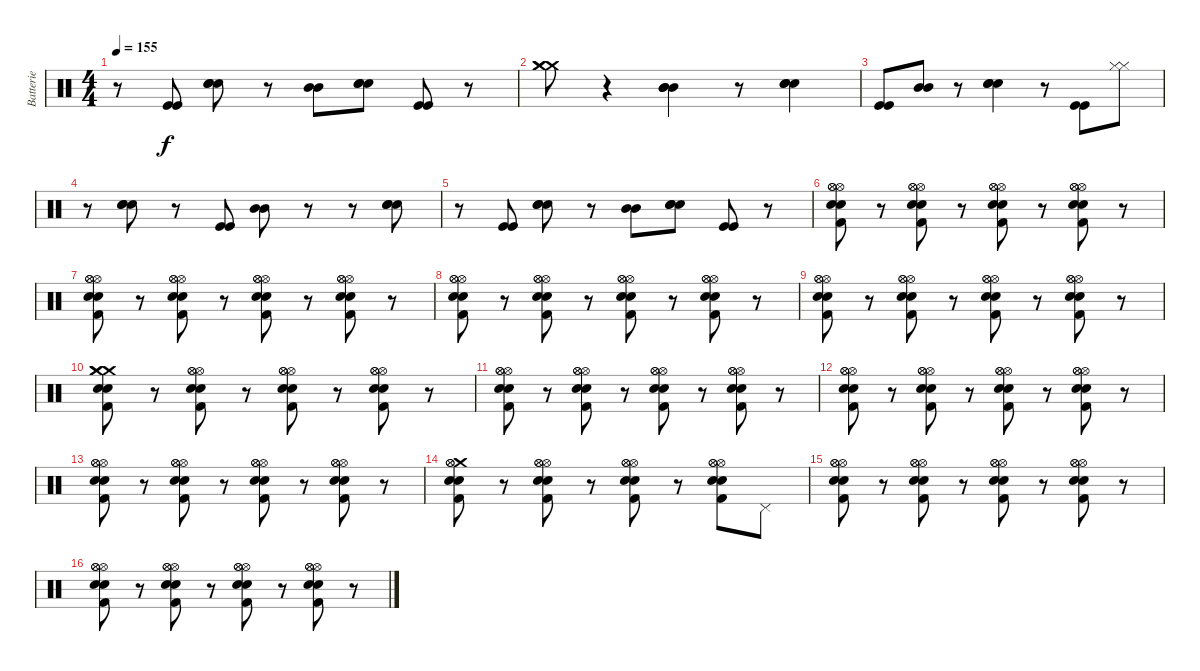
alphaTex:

\track ("Batterie" "Batterie") {instrument percussion}
\staff {score}
\articulation defaults
\ts (4 4)
\tempo 155
\clef neutral
\ks c
r.8{dy f} ("Kick (hit)" "Kick (hit)").8 ("Snare (hit) 2" "Snare (hit) 2" "Snare (hit) 2").8 r.8 ("Mid Tom (hit)" "Mid Tom (hit)").8 ("Snare (hit) 2" "Snare (hit) 2" "Snare (hit) 2").8 ("Kick (hit)" "Kick (hit)").8 r.8 |
("Crash medium (hit)" "Crash medium (hit)" "Crash medium (hit)").8 r.4 ("Mid Tom (hit)" "Mid Tom (hit)" "Mid Tom (hit)").4 r.8 ("Snare (hit) 2" "Snare (hit) 2" "Snare (hit) 2").4 |
("Kick (hit)" "Kick (hit)").8 ("Mid Tom (hit)" "Mid Tom (hit)").8 r.8 ("Snare (hit) 2" "Snare (hit) 2" "Snare (hit) 2").4 r.8 ("Kick (hit)" "Kick (hit)").8 ("Hi-Hat (closed)" "Hi-Hat (closed)").8 |
r.8 ("Snare (hit) 2" "Snare (hit) 2" "Snare (hit) 2").8 r.8 ("Kick (hit)" "Kick (hit)").8 ("Mid Tom (hit)" "Mid Tom (hit)").8 r.8 r.8 ("Snare (hit) 2" "Snare (hit) 2" "Snare (hit) 2").8 |
r.8 ("Kick (hit)" "Kick (hit)").8 ("Snare (hit) 2" "Snare (hit) 2" "Snare (hit) 2").8 r.8 ("Mid Tom (hit)" "Mid Tom (hit)").8 ("Snare (hit) 2" "Snare (hit) 2" "Snare (hit) 2").8 ("Kick (hit)" "Kick (hit)").8 r.8 |
("Hi-Hat (open)" "Hi-Hat (open)" "Hi-Hat (open)" "Electric Snare (hit)" "Electric Snare (hit)" "Kick (hit) 2").8 r.8 ("Hi-Hat (open)" "Hi-Hat (open)" "Hi-Hat (open)" "Electric Snare (hit)" "Electric Snare (hit)" "Kick (hit) 2").8 r.8 ("Hi-Hat (open)" "Hi-Hat (open)" "Hi-Hat (open)" "Electric Snare (hit)" "Electric Snare (hit)" "Kick (hit) 2").8 r.8 ("Hi-Hat (open)" "Hi-Hat (open)" "Hi-Hat (open)" "Electric Snare (hit)" "Electric Snare (hit)" "Kick (hit) 2").8 r.8 |
("Hi-Hat (open)" "Hi-Hat (open)" "Hi-Hat (open)" "Electric Snare (hit)" "Electric Snare (hit)" "Kick (hit) 2").8 r.8 ("Hi-Hat (open)" "Hi-Hat (open)" "Hi-Hat (open)" "Electric Snare (hit)" "Electric Snare (hit)" "Kick (hit) 2").8 r.8 ("Hi-Hat (open)" "Hi-Hat (open)" "Hi-Hat (open)" "Electric Snare (hit)" "Electric Snare (hit)" "Kick (hit) 2").8 r.8 ("Hi-Hat (open)" "Hi-Hat (open)" "Hi-Hat (open)" "Electric Snare (hit)" "Electric Snare (hit)" "Kick (hit) 2").8 r.8 |
("Hi-Hat (open)" "Hi-Hat (open)" "Hi-Hat (open)" "Electric Snare (hit)" "Electric Snare (hit)" "Kick (hit) 2").8 r.8 ("Hi-Hat (open)" "Hi-Hat (open)" "Hi-Hat (open)" "Electric Snare (hit)" "Electric Snare (hit)" "Kick (hit) 2").8 r.8 ("Hi-Hat (open)" "Hi-Hat (open)" "Hi-Hat (open)" "Electric Snare (hit)" "Electric Snare (hit)" "Kick (hit) 2").8 r.8 ("Hi-Hat (open)" "Hi-Hat (open)" "Hi-Hat (open)" "Electric Snare (hit)" "Electric Snare (hit)" "Kick (hit) 2").8 r.8 |
("Hi-Hat (open)" "Hi-Hat (open)" "Hi-Hat (open)" "Electric Snare (hit)" "Electric Snare (hit)" "Kick (hit) 2").8 r.8 ("Hi-Hat (open)" "Hi-Hat (open)" "Hi-Hat (open)" "Electric Snare (hit)" "Electric Snare (hit)" "Kick (hit) 2").8 r.8 ("Hi-Hat (open)" "Hi-Hat (open)" "Hi-Hat (open)" "Electric Snare (hit)" "Electric Snare (hit)" "Kick (hit) 2").8 r.8 ("Hi-Hat (open)" "Hi-Hat (open)" "Hi-Hat (open)" "Electric Snare (hit)" "Electric Snare (hit)" "Kick (hit) 2").8 r.8 |
("Crash medium (hit)" "Crash medium (hit)" "Crash medium (hit)" "Electric Snare (hit)" "Electric Snare (hit)" "Kick (hit) 2").8 r.8 ("Hi-Hat (open)" "Hi-Hat (open)" "Hi-Hat (open)" "Electric Snare (hit)" "Electric Snare (hit)" "Kick (hit) 2").8 r.8 ("Hi-Hat (open)" "Hi-Hat (open)" "Hi-Hat (open)" "Electric Snare (hit)" "Electric Snare (hit)" "Kick (hit) 2").8 r.8 ("Hi-Hat (open)" "Hi-Hat (open)" "Hi-Hat (open)" "Electric Snare (hit)" "Electric Snare (hit)" "Kick (hit) 2").8 r.8 |
("Hi-Hat (open)" "Hi-Hat (open)" "Hi-Hat (open)" "Electric Snare (hit)" "Electric Snare (hit)" "Kick (hit) 2").8 r.8 ("Hi-Hat (open)" "Hi-Hat (open)" "Hi-Hat (open)" "Electric Snare (hit)" "Electric Snare (hit)" "Kick (hit) 2").8 r.8 ("Hi-Hat (open)" "Hi-Hat (open)" "Hi-Hat (open)" "Electric Snare (hit)" "Electric Snare (hit)" "Kick (hit) 2").8 r.8 ("Hi-Hat (open)" "Hi-Hat (open)" "Hi-Hat (open)" "Electric Snare (hit)" "Electric Snare (hit)" "Kick (hit) 2").8 r.8 |
("Hi-Hat (open)" "Hi-Hat (open)" "Hi-Hat (open)" "Electric Snare (hit)" "Electric Snare (hit)" "Kick (hit) 2").8 r.8 ("Hi-Hat (open)" "Hi-Hat (open)" "Hi-Hat (open)" "Electric Snare (hit)" "Electric Snare (hit)" "Kick (hit) 2").8 r.8 ("Hi-Hat (open)" "Hi-Hat (open)" "Hi-Hat (open)" "Electric Snare (hit)" "Electric Snare (hit)" "Kick (hit) 2").8 r.8 ("Hi-Hat (open)" "Hi-Hat (open)" "Hi-Hat (open)" "Electric Snare (hit)" "Electric Snare (hit)" "Kick (hit) 2").8 r.8 |
("Hi-Hat (open)" "Hi-Hat (open)" "Hi-Hat (open)" "Electric Snare (hit)" "Electric Snare (hit)" "Kick (hit) 2").8 r.8 ("Hi-Hat (open)" "Hi-Hat (open)" "Hi-Hat (open)" "Electric Snare (hit)" "Electric Snare (hit)" "Kick (hit) 2").8 r.8 ("Hi-Hat (open)" "Hi-Hat (open)" "Hi-Hat (open)" "Electric Snare (hit)" "Electric Snare (hit)" "Kick (hit) 2").8 r.8 ("Hi-Hat (open)" "Hi-Hat (open)" "Hi-Hat (open)" "Electric Snare (hit)" "Electric Snare (hit)" "Kick (hit) 2").8 r.8 |
("Crash medium (hit)" "Hi-Hat (open)" "Hi-Hat (open)" "Electric Snare (hit)" "Electric Snare (hit)" "Kick (hit) 2").8 r.8 ("Hi-Hat (open)" "Hi-Hat (open)" "Hi-Hat (open)" "Electric Snare (hit)" "Electric Snare (hit)" "Kick (hit) 2").8 r.8 ("Hi-Hat (open)" "Hi-Hat (open)" "Hi-Hat (open)" "Electric Snare (hit)" "Electric Snare (hit)" "Kick (hit) 2").8 r.8 ("Hi-Hat (open)" "Hi-Hat (open)" "Hi-Hat (open)" "Electric Snare (hit)" "Electric Snare (hit)" "Kick (hit) 2").8 "Pedal Hi-Hat (hit)".8 |
("Hi-Hat (open)" "Hi-Hat (open)" "Hi-Hat (open)" "Electric Snare (hit)" "Electric Snare (hit)" "Kick (hit) 2").8 r.8 ("Hi-Hat (open)" "Hi-Hat (open)" "Hi-Hat (open)" "Electric Snare (hit)" "Electric Snare (hit)" "Kick (hit) 2").8 r.8 ("Hi-Hat (open)" "Hi-Hat (open)" "Hi-Hat (open)" "Electric Snare (hit)" "Electric Snare (hit)" "Kick (hit) 2").8 r.8 ("Hi-Hat (open)" "Hi-Hat (open)" "Hi-Hat (open)" "Electric Snare (hit)" "Electric Snare (hit)" "Kick (hit) 2").8 r.8 |
("Hi-Hat (open)" "Hi-Hat (open)" "Hi-Hat (open)" "Electric Snare (hit)" "Electric Snare (hit)" "Kick (hit) 2").8 r.8 ("Hi-Hat (open)" "Hi-Hat (open)" "Hi-Hat (open)" "Electric Snare (hit)" "Electric Snare (hit)" "Kick (hit) 2").8 r.8 ("Hi-Hat (open)" "Hi-Hat (open)" "Hi-Hat (open)" "Electric Snare (hit)" "Electric Snare (hit)" "Kick (hit) 2").8 r.8 ("Hi-Hat (open)" "Hi-Hat (open)" "Hi-Hat (open)" "Electric Snare (hit)" "Electric Snare (hit)" "Kick (hit) 2").8 r.8
